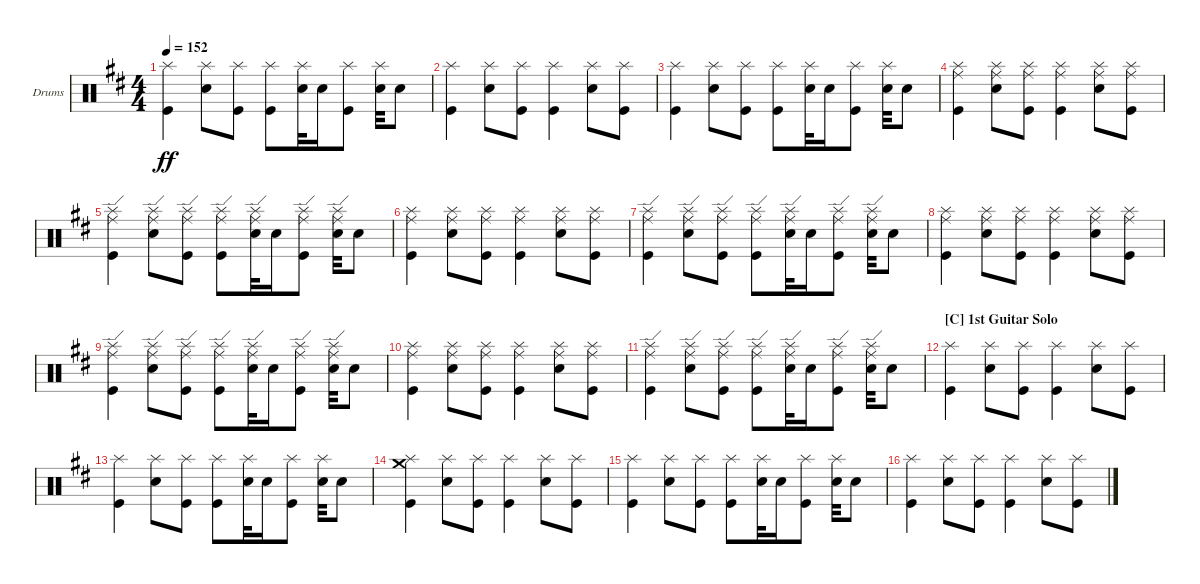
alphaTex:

\defaultSystemsLayout 4
\bracketExtendMode groupsimilarinstruments
\firstSystemTrackNameOrientation horizontal
\otherSystemsTrackNameOrientation horizontal
\track ("Drumkit" "Drums") {instrument percussion}
\staff {score}
\articulation defaults
\ts (4 4)
\tempo 152
\clef neutral
\ks d
("Kick (hit)" "Splash (hit)").4{dy ff} ("Snare (hit) 2" "Splash (hit)").8 ("Kick (hit)" "Splash (hit)").8 ("Kick (hit)" "Splash (hit)").8 ("Snare (hit) 2" "Splash (hit)").32 "Snare (hit) 2".16 ("Kick (hit)" "Splash (hit)").8 ("Snare (hit) 2" "Splash (hit)").32 "Snare (hit) 2".8 |
("Kick (hit)" "Splash (hit)").4 ("Snare (hit) 2" "Splash (hit)").8 ("Kick (hit)" "Splash (hit)").8 ("Kick (hit)" "Splash (hit)").4 ("Snare (hit) 2" "Splash (hit)").8 ("Kick (hit)" "Splash (hit)").8 |
("Kick (hit)" "Splash (hit)").4 ("Snare (hit) 2" "Splash (hit)").8 ("Kick (hit)" "Splash (hit)").8 ("Kick (hit)" "Splash (hit)").8 ("Snare (hit) 2" "Splash (hit)").32 "Snare (hit) 2".16 ("Kick (hit)" "Splash (hit)").8 ("Snare (hit) 2" "Splash (hit)").32 "Snare (hit) 2".8 |
("Kick (hit)" "Splash (hit)" "Ride (middle)").4 ("Snare (hit) 2" "Splash (hit)" "Ride (middle)").8 ("Kick (hit)" "Splash (hit)" "Ride (middle)").8 ("Kick (hit)" "Splash (hit)" "Ride (middle)").4 ("Snare (hit) 2" "Splash (hit)" "Ride (middle)").8 ("Kick (hit)" "Splash (hit)" "Ride (middle)").8 |
("Kick (hit)" "Splash (hit)" "Ride (edge)").4 ("Snare (hit) 2" "Splash (hit)" "Ride (edge)").8 ("Kick (hit)" "Splash (hit)" "Ride (edge)").8 ("Kick (hit)" "Splash (hit)" "Ride (edge)").8 ("Snare (hit) 2" "Splash (hit)" "Ride (edge)").32 "Snare (hit) 2".16 ("Kick (hit)" "Splash (hit)" "Ride (edge)").8 ("Snare (hit) 2" "Splash (hit)" "Ride (edge)").32 "Snare (hit) 2".8 |
("Kick (hit)" "Splash (hit)" "Ride (middle)").4 ("Snare (hit) 2" "Splash (hit)" "Ride (middle)").8 ("Kick (hit)" "Splash (hit)" "Ride (middle)").8 ("Kick (hit)" "Splash (hit)" "Ride (middle)").4 ("Snare (hit) 2" "Splash (hit)" "Ride (middle)").8 ("Kick (hit)" "Splash (hit)" "Ride (middle)").8 |
("Kick (hit)" "Splash (hit)" "Ride (edge)").4 ("Snare (hit) 2" "Splash (hit)" "Ride (edge)").8 ("Kick (hit)" "Splash (hit)" "Ride (edge)").8 ("Kick (hit)" "Splash (hit)" "Ride (edge)").8 ("Snare (hit) 2" "Splash (hit)" "Ride (edge)").32 "Snare (hit) 2".16 ("Kick (hit)" "Splash (hit)" "Ride (edge)").8 ("Snare (hit) 2" "Splash (hit)" "Ride (edge)").32 "Snare (hit) 2".8 |
("Kick (hit)" "Splash (hit)" "Ride (middle)").4 ("Snare (hit) 2" "Splash (hit)" "Ride (middle)").8 ("Kick (hit)" "Splash (hit)" "Ride (middle)").8 ("Kick (hit)" "Splash (hit)" "Ride (middle)").4 ("Snare (hit) 2" "Splash (hit)" "Ride (middle)").8 ("Kick (hit)" "Splash (hit)" "Ride (middle)").8 |
("Kick (hit)" "Splash (hit)" "Ride (edge)").4 ("Snare (hit) 2" "Splash (hit)" "Ride (edge)").8 ("Kick (hit)" "Splash (hit)" "Ride (edge)").8 ("Kick (hit)" "Splash (hit)" "Ride (edge)").8 ("Snare (hit) 2" "Splash (hit)" "Ride (edge)").32 "Snare (hit) 2".16 ("Kick (hit)" "Splash (hit)" "Ride (edge)").8 ("Snare (hit) 2" "Splash (hit)" "Ride (edge)").32 "Snare (hit) 2".8 |
("Kick (hit)" "Splash (hit)" "Ride (middle)").4 ("Snare (hit) 2" "Splash (hit)" "Ride (middle)").8 ("Kick (hit)" "Splash (hit)" "Ride (middle)").8 ("Kick (hit)" "Splash (hit)" "Ride (middle)").4 ("Snare (hit) 2" "Splash (hit)" "Ride (middle)").8 ("Kick (hit)" "Splash (hit)" "Ride (middle)").8 |
("Kick (hit)" "Splash (hit)" "Ride (edge)").4 ("Snare (hit) 2" "Splash (hit)" "Ride (edge)").8 ("Kick (hit)" "Splash (hit)" "Ride (edge)").8 ("Kick (hit)" "Splash (hit)" "Ride (edge)").8 ("Snare (hit) 2" "Splash (hit)" "Ride (edge)").32 "Snare (hit) 2".16 ("Kick (hit)" "Splash (hit)" "Ride (edge)").8 ("Snare (hit) 2" "Splash (hit)" "Ride (edge)").32 "Snare (hit) 2".8 |
\section ("C" "1st Guitar Solo")
("Kick (hit)" "Splash (hit)").4 ("Snare (hit) 2" "Splash (hit)").8 ("Kick (hit)" "Splash (hit)").8 ("Kick (hit)" "Splash (hit)").4 ("Snare (hit) 2" "Splash (hit)").8 ("Kick (hit)" "Splash (hit)").8 |
("Kick (hit)" "Splash (hit)").4 ("Snare (hit) 2" "Splash (hit)").8 ("Kick (hit)" "Splash (hit)").8 ("Kick (hit)" "Splash (hit)").8 ("Snare (hit) 2" "Splash (hit)").32 "Snare (hit) 2".16 ("Kick (hit)" "Splash (hit)").8 ("Snare (hit) 2" "Splash (hit)").32 "Snare (hit) 2".8 |
("Kick (hit)" "Splash (hit)" "Crash medium (hit)").4 ("Snare (hit) 2" "Splash (hit)").8 ("Kick (hit)" "Splash (hit)").8 ("Kick (hit)" "Splash (hit)").4 ("Snare (hit) 2" "Splash (hit)").8 ("Kick (hit)" "Splash (hit)").8 |
("Kick (hit)" "Splash (hit)").4 ("Snare (hit) 2" "Splash (hit)").8 ("Kick (hit)" "Splash (hit)").8 ("Kick (hit)" "Splash (hit)").8 ("Snare (hit) 2" "Splash (hit)").32 "Snare (hit) 2".16 ("Kick (hit)" "Splash (hit)").8 ("Snare (hit) 2" "Splash (hit)").32 "Snare (hit) 2".8 |
("Kick (hit)" "Splash (hit)").4 ("Snare (hit) 2" "Splash (hit)").8 ("Kick (hit)" "Splash (hit)").8 ("Kick (hit)" "Splash (hit)").4 ("Snare (hit) 2" "Splash (hit)").8 ("Kick (hit)" "Splash (hit)").8
